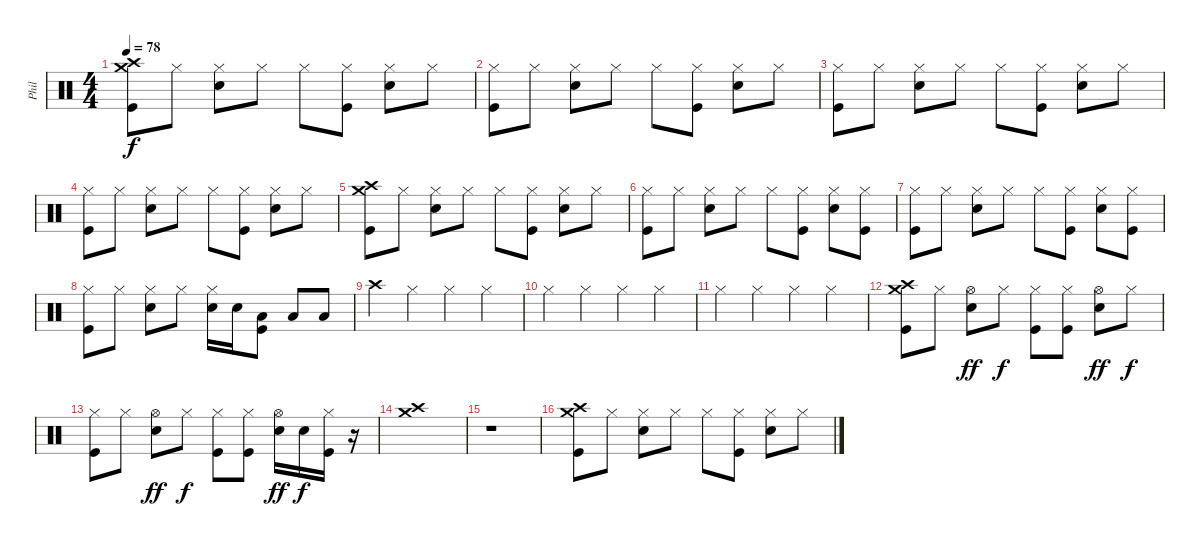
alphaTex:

\track ("Phil" "Phil") {instrument percussion}
\staff {score}
\articulation defaults
\ts (4 4)
\tempo 78
\clef neutral
\ks c
("Crash high (hit)" "Crash medium (hit)" "Kick (hit)").8{dy f} "Hi-Hat (closed)".8 ("Hi-Hat (closed)" "Electric Snare (hit)").8 "Hi-Hat (closed)".8 "Hi-Hat (closed)".8 ("Hi-Hat (closed)" "Kick (hit)").8 ("Hi-Hat (closed)" "Electric Snare (hit)").8 "Hi-Hat (closed)".8 |
("Hi-Hat (closed)" "Kick (hit)").8 "Hi-Hat (closed)".8 ("Hi-Hat (closed)" "Electric Snare (hit)").8 "Hi-Hat (closed)".8 "Hi-Hat (closed)".8 ("Hi-Hat (closed)" "Kick (hit)").8 ("Hi-Hat (closed)" "Electric Snare (hit)").8 "Hi-Hat (closed)".8 |
("Hi-Hat (closed)" "Kick (hit)").8 "Hi-Hat (closed)".8 ("Hi-Hat (closed)" "Electric Snare (hit)").8 "Hi-Hat (closed)".8 "Hi-Hat (closed)".8 ("Hi-Hat (closed)" "Kick (hit)").8 ("Hi-Hat (closed)" "Electric Snare (hit)").8 "Hi-Hat (closed)".8 |
("Hi-Hat (closed)" "Kick (hit)").8 "Hi-Hat (closed)".8 ("Hi-Hat (closed)" "Electric Snare (hit)").8 "Hi-Hat (closed)".8 "Hi-Hat (closed)".8 ("Hi-Hat (closed)" "Kick (hit)").8 ("Hi-Hat (closed)" "Electric Snare (hit)").8 "Hi-Hat (closed)".8 |
("Crash high (hit)" "Crash medium (hit)" "Kick (hit)").8 "Hi-Hat (closed)".8 ("Hi-Hat (closed)" "Electric Snare (hit)").8 "Hi-Hat (closed)".8 "Hi-Hat (closed)".8 ("Hi-Hat (closed)" "Kick (hit)").8 ("Hi-Hat (closed)" "Electric Snare (hit)").8 "Hi-Hat (closed)".8 |
("Hi-Hat (closed)" "Kick (hit)").8 "Hi-Hat (closed)".8 ("Hi-Hat (closed)" "Electric Snare (hit)").8 "Hi-Hat (closed)".8 "Hi-Hat (closed)".8 ("Hi-Hat (closed)" "Kick (hit)").8 ("Hi-Hat (closed)" "Electric Snare (hit)").8 ("Hi-Hat (closed)" "Kick (hit)").8 |
("Hi-Hat (closed)" "Kick (hit)").8 "Hi-Hat (closed)".8 ("Hi-Hat (closed)" "Electric Snare (hit)").8 "Hi-Hat (closed)".8 "Hi-Hat (closed)".8 ("Hi-Hat (closed)" "Kick (hit)").8 ("Hi-Hat (closed)" "Electric Snare (hit)").8 ("Hi-Hat (closed)" "Kick (hit)").8 |
("Hi-Hat (closed)" "Kick (hit)").8 "Hi-Hat (closed)".8 ("Hi-Hat (closed)" "Electric Snare (hit)").8 "Hi-Hat (closed)".8 ("Hi-Hat (closed)" "Electric Snare (hit)").16 "Electric Snare (hit)".16 ("Low Floor Tom (hit)" "Kick (hit)").8 "Low Floor Tom (hit)".8 "Low Floor Tom (hit)".8 |
"Crash high (hit)".4 "Hi-Hat (closed)".4 "Hi-Hat (closed)".4 "Hi-Hat (closed)".4 |
"Hi-Hat (closed)".4 "Hi-Hat (closed)".4 "Hi-Hat (closed)".4 "Hi-Hat (closed)".4 |
"Hi-Hat (closed)".4 "Hi-Hat (closed)".4 "Hi-Hat (closed)".4 "Hi-Hat (closed)".4 |
("Crash high (hit)" "Crash medium (hit)" "Kick (hit)").8 "Hi-Hat (closed)".8 ("Hi-Hat (open)" "Electric Snare (hit)").8{dy ff} "Hi-Hat (closed)".8{dy f} ("Hi-Hat (closed)" "Kick (hit)").8 ("Hi-Hat (closed)" "Kick (hit)").8 ("Hi-Hat (open)" "Electric Snare (hit)").8{dy ff} "Hi-Hat (closed)".8{dy f} |
("Hi-Hat (closed)" "Kick (hit)").8 "Hi-Hat (closed)".8 ("Hi-Hat (open)" "Electric Snare (hit)").8{dy ff} "Hi-Hat (closed)".8{dy f} ("Hi-Hat (closed)" "Kick (hit)").8 ("Hi-Hat (closed)" "Kick (hit)").8 ("Hi-Hat (open)" "Electric Snare (hit)").16{dy ff} "Electric Snare (hit)".16{dy f} ("Hi-Hat (closed)" "Kick (hit)").16 r.16 |
("Crash high (hit)" "Crash medium (hit)").1 |
r.1 |
("Crash high (hit)" "Crash medium (hit)" "Kick (hit)").8 "Hi-Hat (closed)".8 ("Hi-Hat (closed)" "Electric Snare (hit)").8 "Hi-Hat (closed)".8 "Hi-Hat (closed)".8 ("Hi-Hat (closed)" "Kick (hit)").8 ("Hi-Hat (closed)" "Electric Snare (hit)").8 "Hi-Hat (closed)".8
